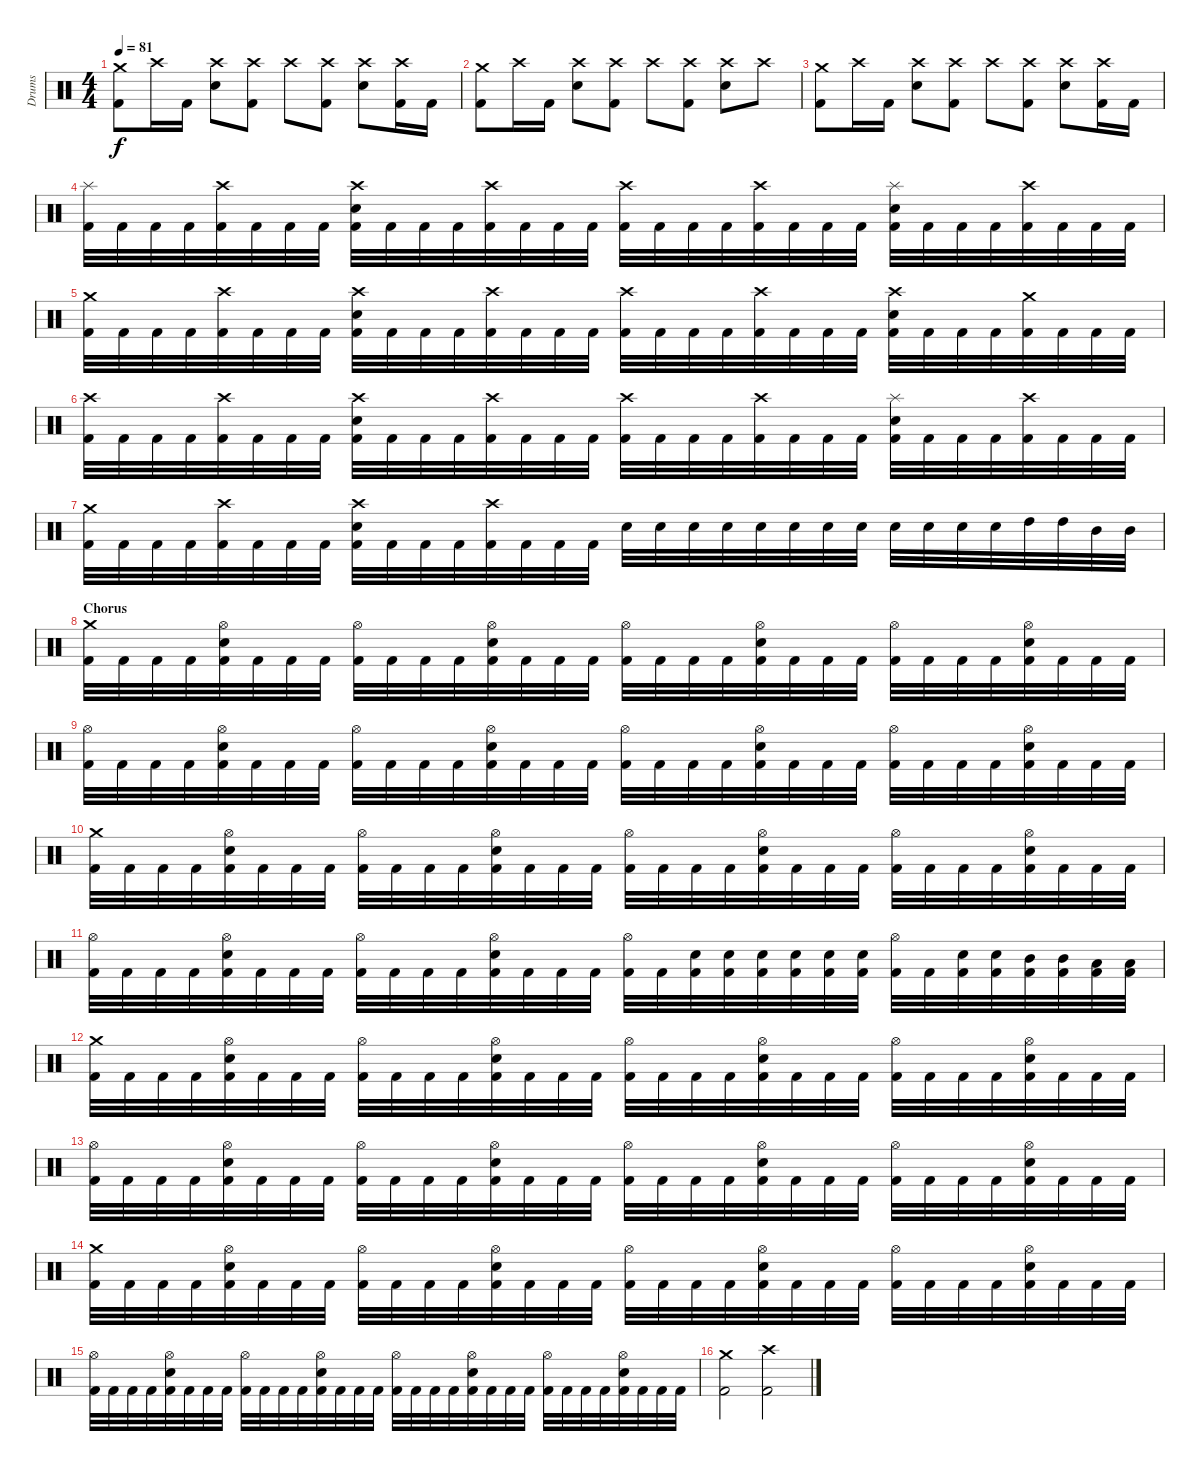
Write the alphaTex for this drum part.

\track ("Drums" "Drums") {instrument percussion}
\staff {score}
\articulation defaults
\ts (4 4)
\tempo 81
\clef neutral
\ks c
("Crash medium (hit)" "Kick (hit) 2").8{dy f} "Crash high (hit)".16 "Kick (hit) 2".16 ("Crash high (hit)" "Electric Snare (hit)").8 ("Crash high (hit)" "Kick (hit) 2").8 "Crash high (hit)".8 ("Crash high (hit)" "Kick (hit) 2").8 ("Crash high (hit)" "Electric Snare (hit)").8 ("Crash high (hit)" "Kick (hit) 2").16 "Kick (hit) 2".16 |
("Crash medium (hit)" "Kick (hit) 2").8 "Crash high (hit)".16 "Kick (hit) 2".16 ("Crash high (hit)" "Electric Snare (hit)").8 ("Crash high (hit)" "Kick (hit) 2").8 "Crash high (hit)".8 ("Crash high (hit)" "Kick (hit) 2").8 ("Crash high (hit)" "Electric Snare (hit)").8 "Crash high (hit)".8 |
("Crash medium (hit)" "Kick (hit) 2").8 "Crash high (hit)".16 "Kick (hit) 2".16 ("Crash high (hit)" "Electric Snare (hit)").8 ("Crash high (hit)" "Kick (hit) 2").8 "Crash high (hit)".8 ("Crash high (hit)" "Kick (hit) 2").8 ("Crash high (hit)" "Electric Snare (hit)").8 ("Crash high (hit)" "Kick (hit) 2").16 "Kick (hit) 2".16 |
("Splash (hit)" "Kick (hit) 2").32 "Kick (hit) 2".32 "Kick (hit) 2".32 "Kick (hit) 2".32 ("Crash high (hit)" "Kick (hit) 2").32 "Kick (hit) 2".32 "Kick (hit) 2".32 "Kick (hit) 2".32 ("Crash high (hit)" "Electric Snare (hit)" "Kick (hit) 2").32 "Kick (hit) 2".32 "Kick (hit) 2".32 "Kick (hit) 2".32 ("Crash high (hit)" "Kick (hit) 2").32 "Kick (hit) 2".32 "Kick (hit) 2".32 "Kick (hit) 2".32 ("Crash high (hit)" "Kick (hit) 2").32 "Kick (hit) 2".32 "Kick (hit) 2".32 "Kick (hit) 2".32 ("Crash high (hit)" "Kick (hit) 2").32 "Kick (hit) 2".32 "Kick (hit) 2".32 "Kick (hit) 2".32 ("Splash (hit)" "Electric Snare (hit)" "Kick (hit) 2").32 "Kick (hit) 2".32 "Kick (hit) 2".32 "Kick (hit) 2".32 ("Crash high (hit)" "Kick (hit) 2").32 "Kick (hit) 2".32 "Kick (hit) 2".32 "Kick (hit) 2".32 |
("Crash medium (hit)" "Kick (hit) 2").32 "Kick (hit) 2".32 "Kick (hit) 2".32 "Kick (hit) 2".32 ("Crash high (hit)" "Kick (hit) 2").32 "Kick (hit) 2".32 "Kick (hit) 2".32 "Kick (hit) 2".32 ("Crash high (hit)" "Electric Snare (hit)" "Kick (hit) 2").32 "Kick (hit) 2".32 "Kick (hit) 2".32 "Kick (hit) 2".32 ("Crash high (hit)" "Kick (hit) 2").32 "Kick (hit) 2".32 "Kick (hit) 2".32 "Kick (hit) 2".32 ("Crash high (hit)" "Kick (hit) 2").32 "Kick (hit) 2".32 "Kick (hit) 2".32 "Kick (hit) 2".32 ("Crash high (hit)" "Kick (hit) 2").32 "Kick (hit) 2".32 "Kick (hit) 2".32 "Kick (hit) 2".32 ("Crash high (hit)" "Electric Snare (hit)" "Kick (hit) 2").32 "Kick (hit) 2".32 "Kick (hit) 2".32 "Kick (hit) 2".32 ("Crash medium (hit)" "Kick (hit) 2").32 "Kick (hit) 2".32 "Kick (hit) 2".32 "Kick (hit) 2".32 |
("Crash high (hit)" "Kick (hit) 2").32 "Kick (hit) 2".32 "Kick (hit) 2".32 "Kick (hit) 2".32 ("Crash high (hit)" "Kick (hit) 2").32 "Kick (hit) 2".32 "Kick (hit) 2".32 "Kick (hit) 2".32 ("Crash high (hit)" "Electric Snare (hit)" "Kick (hit) 2").32 "Kick (hit) 2".32 "Kick (hit) 2".32 "Kick (hit) 2".32 ("Crash high (hit)" "Kick (hit) 2").32 "Kick (hit) 2".32 "Kick (hit) 2".32 "Kick (hit) 2".32 ("Crash high (hit)" "Kick (hit) 2").32 "Kick (hit) 2".32 "Kick (hit) 2".32 "Kick (hit) 2".32 ("Crash high (hit)" "Kick (hit) 2").32 "Kick (hit) 2".32 "Kick (hit) 2".32 "Kick (hit) 2".32 ("Splash (hit)" "Electric Snare (hit)" "Kick (hit) 2").32 "Kick (hit) 2".32 "Kick (hit) 2".32 "Kick (hit) 2".32 ("Crash high (hit)" "Kick (hit) 2").32 "Kick (hit) 2".32 "Kick (hit) 2".32 "Kick (hit) 2".32 |
("Crash medium (hit)" "Kick (hit) 2").32 "Kick (hit) 2".32 "Kick (hit) 2".32 "Kick (hit) 2".32 ("Crash high (hit)" "Kick (hit) 2").32 "Kick (hit) 2".32 "Kick (hit) 2".32 "Kick (hit) 2".32 ("Crash high (hit)" "Electric Snare (hit)" "Kick (hit) 2").32 "Kick (hit) 2".32 "Kick (hit) 2".32 "Kick (hit) 2".32 ("Crash high (hit)" "Kick (hit) 2").32 "Kick (hit) 2".32 "Kick (hit) 2".32 "Kick (hit) 2".32 "Electric Snare (hit)".32{volume 0} "Electric Snare (hit)".32{volume 14} "Electric Snare (hit)".32 "Electric Snare (hit)".32 "Electric Snare (hit)".32 "Electric Snare (hit)".32 "Electric Snare (hit)".32 "Electric Snare (hit)".32 "Electric Snare (hit)".32 "Electric Snare (hit)".32 "Electric Snare (hit)".32 "Electric Snare (hit)".32 "High Tom (hit)".32 "High Tom (hit)".32 "Mid Tom (hit)".32 "Mid Tom (hit)".32 |
\section ("" "Chorus")
("Crash medium (hit)" "Kick (hit) 2").32 "Kick (hit) 2".32 "Kick (hit) 2".32 "Kick (hit) 2".32 ("Hi-Hat (open)" "Electric Snare (hit)" "Kick (hit) 2").32 "Kick (hit) 2".32 "Kick (hit) 2".32 "Kick (hit) 2".32 ("Hi-Hat (open)" "Kick (hit) 2").32 "Kick (hit) 2".32 "Kick (hit) 2".32 "Kick (hit) 2".32 ("Hi-Hat (open)" "Electric Snare (hit)" "Kick (hit) 2").32 "Kick (hit) 2".32 "Kick (hit) 2".32 "Kick (hit) 2".32 ("Hi-Hat (open)" "Kick (hit) 2").32 "Kick (hit) 2".32 "Kick (hit) 2".32 "Kick (hit) 2".32 ("Hi-Hat (open)" "Electric Snare (hit)" "Kick (hit) 2").32 "Kick (hit) 2".32 "Kick (hit) 2".32 "Kick (hit) 2".32 ("Hi-Hat (open)" "Kick (hit) 2").32 "Kick (hit) 2".32 "Kick (hit) 2".32 "Kick (hit) 2".32 ("Hi-Hat (open)" "Electric Snare (hit)" "Kick (hit) 2").32 "Kick (hit) 2".32 "Kick (hit) 2".32 "Kick (hit) 2".32 |
("Hi-Hat (open)" "Kick (hit) 2").32 "Kick (hit) 2".32 "Kick (hit) 2".32 "Kick (hit) 2".32 ("Hi-Hat (open)" "Electric Snare (hit)" "Kick (hit) 2").32 "Kick (hit) 2".32 "Kick (hit) 2".32 "Kick (hit) 2".32 ("Hi-Hat (open)" "Kick (hit) 2").32 "Kick (hit) 2".32 "Kick (hit) 2".32 "Kick (hit) 2".32 ("Hi-Hat (open)" "Electric Snare (hit)" "Kick (hit) 2").32 "Kick (hit) 2".32 "Kick (hit) 2".32 "Kick (hit) 2".32 ("Hi-Hat (open)" "Kick (hit) 2").32 "Kick (hit) 2".32 "Kick (hit) 2".32 "Kick (hit) 2".32 ("Hi-Hat (open)" "Electric Snare (hit)" "Kick (hit) 2").32 "Kick (hit) 2".32 "Kick (hit) 2".32 "Kick (hit) 2".32 ("Hi-Hat (open)" "Kick (hit) 2").32 "Kick (hit) 2".32 "Kick (hit) 2".32 "Kick (hit) 2".32 ("Hi-Hat (open)" "Electric Snare (hit)" "Kick (hit) 2").32 "Kick (hit) 2".32 "Kick (hit) 2".32 "Kick (hit) 2".32 |
("Crash medium (hit)" "Kick (hit) 2").32 "Kick (hit) 2".32 "Kick (hit) 2".32 "Kick (hit) 2".32 ("Hi-Hat (open)" "Electric Snare (hit)" "Kick (hit) 2").32 "Kick (hit) 2".32 "Kick (hit) 2".32 "Kick (hit) 2".32 ("Hi-Hat (open)" "Kick (hit) 2").32 "Kick (hit) 2".32 "Kick (hit) 2".32 "Kick (hit) 2".32 ("Hi-Hat (open)" "Electric Snare (hit)" "Kick (hit) 2").32 "Kick (hit) 2".32 "Kick (hit) 2".32 "Kick (hit) 2".32 ("Hi-Hat (open)" "Kick (hit) 2").32 "Kick (hit) 2".32 "Kick (hit) 2".32 "Kick (hit) 2".32 ("Hi-Hat (open)" "Electric Snare (hit)" "Kick (hit) 2").32 "Kick (hit) 2".32 "Kick (hit) 2".32 "Kick (hit) 2".32 ("Hi-Hat (open)" "Kick (hit) 2").32 "Kick (hit) 2".32 "Kick (hit) 2".32 "Kick (hit) 2".32 ("Hi-Hat (open)" "Electric Snare (hit)" "Kick (hit) 2").32 "Kick (hit) 2".32 "Kick (hit) 2".32 "Kick (hit) 2".32 |
("Hi-Hat (open)" "Kick (hit) 2").32 "Kick (hit) 2".32 "Kick (hit) 2".32 "Kick (hit) 2".32 ("Hi-Hat (open)" "Electric Snare (hit)" "Kick (hit) 2").32 "Kick (hit) 2".32 "Kick (hit) 2".32 "Kick (hit) 2".32 ("Hi-Hat (open)" "Kick (hit) 2").32 "Kick (hit) 2".32 "Kick (hit) 2".32 "Kick (hit) 2".32 ("Hi-Hat (open)" "Electric Snare (hit)" "Kick (hit) 2").32 "Kick (hit) 2".32 "Kick (hit) 2".32 "Kick (hit) 2".32 ("Hi-Hat (open)" "Kick (hit) 2").32 "Kick (hit) 2".32 ("Electric Snare (hit)" "Kick (hit) 2").32 ("Electric Snare (hit)" "Kick (hit) 2").32 ("Electric Snare (hit)" "Kick (hit) 2").32 ("Electric Snare (hit)" "Kick (hit) 2").32 ("Electric Snare (hit)" "Kick (hit) 2").32 ("Electric Snare (hit)" "Kick (hit) 2").32 ("Hi-Hat (open)" "Kick (hit) 2").32 "Kick (hit) 2".32 ("Electric Snare (hit)" "Kick (hit) 2").32 ("Electric Snare (hit)" "Kick (hit) 2").32 ("Mid Tom (hit)" "Kick (hit) 2").32 ("Mid Tom (hit)" "Kick (hit) 2").32 ("Low Tom (hit)" "Kick (hit) 2").32 ("Low Tom (hit)" "Kick (hit) 2").32 |
("Crash medium (hit)" "Kick (hit) 2").32 "Kick (hit) 2".32 "Kick (hit) 2".32 "Kick (hit) 2".32 ("Hi-Hat (open)" "Electric Snare (hit)" "Kick (hit) 2").32 "Kick (hit) 2".32 "Kick (hit) 2".32 "Kick (hit) 2".32 ("Hi-Hat (open)" "Kick (hit) 2").32 "Kick (hit) 2".32 "Kick (hit) 2".32 "Kick (hit) 2".32 ("Hi-Hat (open)" "Electric Snare (hit)" "Kick (hit) 2").32 "Kick (hit) 2".32 "Kick (hit) 2".32 "Kick (hit) 2".32 ("Hi-Hat (open)" "Kick (hit) 2").32 "Kick (hit) 2".32 "Kick (hit) 2".32 "Kick (hit) 2".32 ("Hi-Hat (open)" "Electric Snare (hit)" "Kick (hit) 2").32 "Kick (hit) 2".32 "Kick (hit) 2".32 "Kick (hit) 2".32 ("Hi-Hat (open)" "Kick (hit) 2").32 "Kick (hit) 2".32 "Kick (hit) 2".32 "Kick (hit) 2".32 ("Hi-Hat (open)" "Electric Snare (hit)" "Kick (hit) 2").32 "Kick (hit) 2".32 "Kick (hit) 2".32 "Kick (hit) 2".32 |
("Hi-Hat (open)" "Kick (hit) 2").32 "Kick (hit) 2".32 "Kick (hit) 2".32 "Kick (hit) 2".32 ("Hi-Hat (open)" "Electric Snare (hit)" "Kick (hit) 2").32 "Kick (hit) 2".32 "Kick (hit) 2".32 "Kick (hit) 2".32 ("Hi-Hat (open)" "Kick (hit) 2").32 "Kick (hit) 2".32 "Kick (hit) 2".32 "Kick (hit) 2".32 ("Hi-Hat (open)" "Electric Snare (hit)" "Kick (hit) 2").32 "Kick (hit) 2".32 "Kick (hit) 2".32 "Kick (hit) 2".32 ("Hi-Hat (open)" "Kick (hit) 2").32 "Kick (hit) 2".32 "Kick (hit) 2".32 "Kick (hit) 2".32 ("Hi-Hat (open)" "Electric Snare (hit)" "Kick (hit) 2").32 "Kick (hit) 2".32 "Kick (hit) 2".32 "Kick (hit) 2".32 ("Hi-Hat (open)" "Kick (hit) 2").32 "Kick (hit) 2".32 "Kick (hit) 2".32 "Kick (hit) 2".32 ("Hi-Hat (open)" "Electric Snare (hit)" "Kick (hit) 2").32 "Kick (hit) 2".32 "Kick (hit) 2".32 "Kick (hit) 2".32 |
("Crash medium (hit)" "Kick (hit) 2").32 "Kick (hit) 2".32 "Kick (hit) 2".32 "Kick (hit) 2".32 ("Hi-Hat (open)" "Electric Snare (hit)" "Kick (hit) 2").32 "Kick (hit) 2".32 "Kick (hit) 2".32 "Kick (hit) 2".32 ("Hi-Hat (open)" "Kick (hit) 2").32 "Kick (hit) 2".32 "Kick (hit) 2".32 "Kick (hit) 2".32 ("Hi-Hat (open)" "Electric Snare (hit)" "Kick (hit) 2").32 "Kick (hit) 2".32 "Kick (hit) 2".32 "Kick (hit) 2".32 ("Hi-Hat (open)" "Kick (hit) 2").32 "Kick (hit) 2".32 "Kick (hit) 2".32 "Kick (hit) 2".32 ("Hi-Hat (open)" "Electric Snare (hit)" "Kick (hit) 2").32 "Kick (hit) 2".32 "Kick (hit) 2".32 "Kick (hit) 2".32 ("Hi-Hat (open)" "Kick (hit) 2").32 "Kick (hit) 2".32 "Kick (hit) 2".32 "Kick (hit) 2".32 ("Hi-Hat (open)" "Electric Snare (hit)" "Kick (hit) 2").32 "Kick (hit) 2".32 "Kick (hit) 2".32 "Kick (hit) 2".32 |
("Hi-Hat (open)" "Kick (hit) 2").32 "Kick (hit) 2".32 "Kick (hit) 2".32 "Kick (hit) 2".32 ("Hi-Hat (open)" "Electric Snare (hit)" "Kick (hit) 2").32 "Kick (hit) 2".32 "Kick (hit) 2".32 "Kick (hit) 2".32 ("Hi-Hat (open)" "Kick (hit) 2").32 "Kick (hit) 2".32 "Kick (hit) 2".32 "Kick (hit) 2".32 ("Hi-Hat (open)" "Electric Snare (hit)" "Kick (hit) 2").32 "Kick (hit) 2".32 "Kick (hit) 2".32 "Kick (hit) 2".32 ("Hi-Hat (open)" "Kick (hit) 2").32 "Kick (hit) 2".32 "Kick (hit) 2".32 "Kick (hit) 2".32 ("Hi-Hat (open)" "Electric Snare (hit)" "Kick (hit) 2").32 "Kick (hit) 2".32 "Kick (hit) 2".32 "Kick (hit) 2".32 ("Hi-Hat (open)" "Kick (hit) 2").32 "Kick (hit) 2".32 "Kick (hit) 2".32 "Kick (hit) 2".32 ("Hi-Hat (open)" "Electric Snare (hit)" "Kick (hit) 2").32 "Kick (hit) 2".32 "Kick (hit) 2".32 "Kick (hit) 2".32 |
("Crash medium (hit)" "Kick (hit) 2").2 ("Crash high (hit)" "Kick (hit) 2").2
